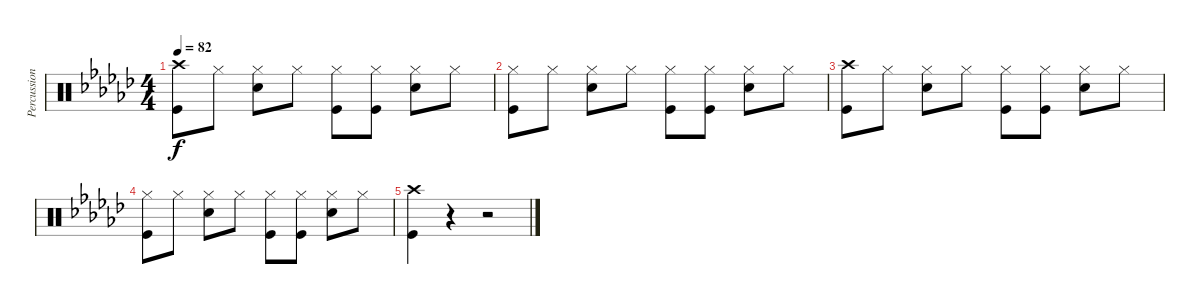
\track ("Percussions" "Percussion") {instrument percussion}
\staff {score}
\articulation defaults
\ts (4 4)
\tempo 82
\clef neutral
\ks ebminor
("Crash high (hit)" "Kick (hit)").8{dy f} "Hi-Hat (closed)".8 ("Hi-Hat (closed)" "Snare (hit) 2").8 "Hi-Hat (closed)".8 ("Hi-Hat (closed)" "Kick (hit)").8 ("Hi-Hat (closed)" "Kick (hit)").8 ("Hi-Hat (closed)" "Snare (hit) 2").8 "Hi-Hat (closed)".8 |
("Kick (hit)" "Hi-Hat (closed)").8 "Hi-Hat (closed)".8 ("Hi-Hat (closed)" "Snare (hit) 2").8 "Hi-Hat (closed)".8 ("Hi-Hat (closed)" "Kick (hit)").8 ("Hi-Hat (closed)" "Kick (hit)").8 ("Hi-Hat (closed)" "Snare (hit) 2").8 "Hi-Hat (closed)".8 |
("Crash high (hit)" "Kick (hit)").8 "Hi-Hat (closed)".8 ("Hi-Hat (closed)" "Snare (hit) 2").8 "Hi-Hat (closed)".8 ("Hi-Hat (closed)" "Kick (hit)").8 ("Hi-Hat (closed)" "Kick (hit)").8 ("Hi-Hat (closed)" "Snare (hit) 2").8 "Hi-Hat (closed)".8 |
("Kick (hit)" "Hi-Hat (closed)").8 "Hi-Hat (closed)".8 ("Hi-Hat (closed)" "Snare (hit) 2").8 "Hi-Hat (closed)".8 ("Hi-Hat (closed)" "Kick (hit)").8 ("Hi-Hat (closed)" "Kick (hit)").8 ("Hi-Hat (closed)" "Snare (hit) 2").8 "Hi-Hat (closed)".8 |
("Kick (hit)" "Crash high (hit)").4 r.4 r.2
